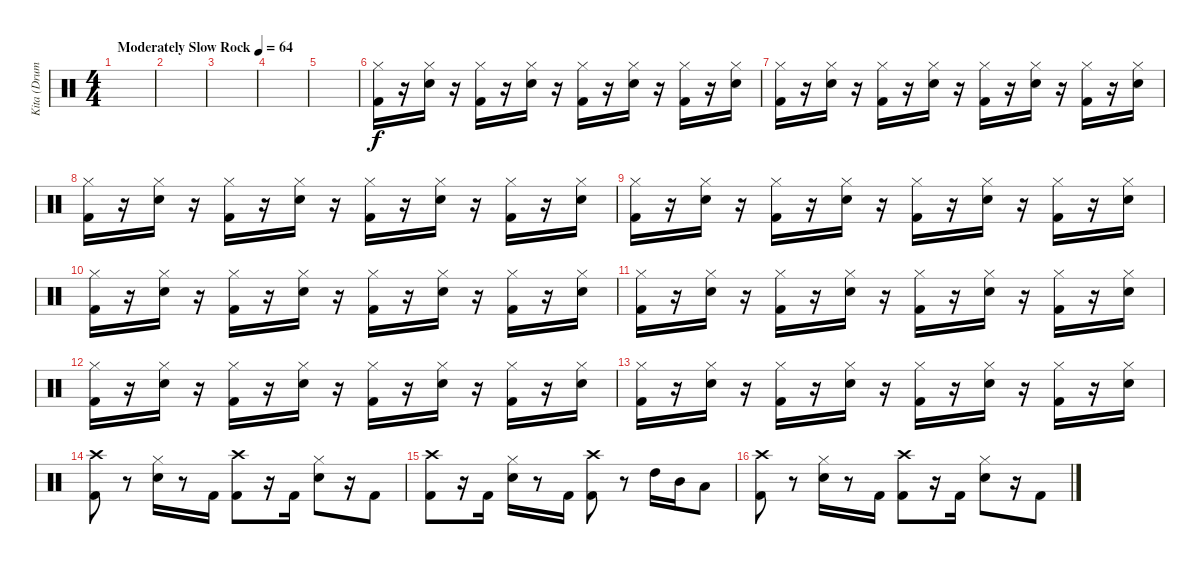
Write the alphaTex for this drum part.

\track ("Kita (Drums)" "Kita (Drum") {instrument percussion}
\staff {score}
\articulation defaults
\ts (4 4)
\tempo (64 "Moderately Slow Rock")
\clef neutral
\ks c
|
|
|
|
|
("Kick (hit) 2" "Hi-Hat (closed)").16 r.16 ("Electric Snare (hit)" "Hi-Hat (closed)").16 r.16 ("Kick (hit) 2" "Hi-Hat (closed)").16 r.16 ("Electric Snare (hit)" "Hi-Hat (closed)").16 r.16 ("Kick (hit) 2" "Hi-Hat (closed)").16 r.16 ("Electric Snare (hit)" "Hi-Hat (closed)").16 r.16 ("Kick (hit) 2" "Hi-Hat (closed)").16 r.16 ("Electric Snare (hit)" "Hi-Hat (closed)").16 |
("Kick (hit) 2" "Hi-Hat (closed)").16 r.16 ("Electric Snare (hit)" "Hi-Hat (closed)").16 r.16 ("Kick (hit) 2" "Hi-Hat (closed)").16 r.16 ("Electric Snare (hit)" "Hi-Hat (closed)").16 r.16 ("Kick (hit) 2" "Hi-Hat (closed)").16 r.16 ("Electric Snare (hit)" "Hi-Hat (closed)").16 r.16 ("Kick (hit) 2" "Hi-Hat (closed)").16 r.16 ("Electric Snare (hit)" "Hi-Hat (closed)").16 |
("Kick (hit) 2" "Hi-Hat (closed)").16 r.16 ("Electric Snare (hit)" "Hi-Hat (closed)").16 r.16 ("Kick (hit) 2" "Hi-Hat (closed)").16 r.16 ("Electric Snare (hit)" "Hi-Hat (closed)").16 r.16 ("Kick (hit) 2" "Hi-Hat (closed)").16 r.16 ("Electric Snare (hit)" "Hi-Hat (closed)").16 r.16 ("Kick (hit) 2" "Hi-Hat (closed)").16 r.16 ("Electric Snare (hit)" "Hi-Hat (closed)").16 |
("Kick (hit) 2" "Hi-Hat (closed)").16 r.16 ("Electric Snare (hit)" "Hi-Hat (closed)").16 r.16 ("Kick (hit) 2" "Hi-Hat (closed)").16 r.16 ("Electric Snare (hit)" "Hi-Hat (closed)").16 r.16 ("Kick (hit) 2" "Hi-Hat (closed)").16 r.16 ("Electric Snare (hit)" "Hi-Hat (closed)").16 r.16 ("Kick (hit) 2" "Hi-Hat (closed)").16 r.16 ("Electric Snare (hit)" "Hi-Hat (closed)").16 |
("Kick (hit) 2" "Hi-Hat (closed)").16 r.16 ("Electric Snare (hit)" "Hi-Hat (closed)").16 r.16 ("Kick (hit) 2" "Hi-Hat (closed)").16 r.16 ("Electric Snare (hit)" "Hi-Hat (closed)").16 r.16 ("Kick (hit) 2" "Hi-Hat (closed)").16 r.16 ("Electric Snare (hit)" "Hi-Hat (closed)").16 r.16 ("Kick (hit) 2" "Hi-Hat (closed)").16 r.16 ("Electric Snare (hit)" "Hi-Hat (closed)").16 |
("Kick (hit) 2" "Hi-Hat (closed)").16 r.16 ("Electric Snare (hit)" "Hi-Hat (closed)").16 r.16 ("Kick (hit) 2" "Hi-Hat (closed)").16 r.16 ("Electric Snare (hit)" "Hi-Hat (closed)").16 r.16 ("Kick (hit) 2" "Hi-Hat (closed)").16 r.16 ("Electric Snare (hit)" "Hi-Hat (closed)").16 r.16 ("Kick (hit) 2" "Hi-Hat (closed)").16 r.16 ("Electric Snare (hit)" "Hi-Hat (closed)").16 |
("Kick (hit) 2" "Hi-Hat (closed)").16 r.16 ("Electric Snare (hit)" "Hi-Hat (closed)").16 r.16 ("Kick (hit) 2" "Hi-Hat (closed)").16 r.16 ("Electric Snare (hit)" "Hi-Hat (closed)").16 r.16 ("Kick (hit) 2" "Hi-Hat (closed)").16 r.16 ("Electric Snare (hit)" "Hi-Hat (closed)").16 r.16 ("Kick (hit) 2" "Hi-Hat (closed)").16 r.16 ("Electric Snare (hit)" "Hi-Hat (closed)").16 |
("Kick (hit) 2" "Hi-Hat (closed)").16 r.16 ("Electric Snare (hit)" "Hi-Hat (closed)").16 r.16 ("Kick (hit) 2" "Hi-Hat (closed)").16 r.16 ("Electric Snare (hit)" "Hi-Hat (closed)").16 r.16 ("Kick (hit) 2" "Hi-Hat (closed)").16 r.16 ("Electric Snare (hit)" "Hi-Hat (closed)").16 r.16 ("Kick (hit) 2" "Hi-Hat (closed)").16 r.16 ("Electric Snare (hit)" "Hi-Hat (closed)").16 |
("Kick (hit) 2" "Crash high (hit)").8 r.8 ("Electric Snare (hit)" "Hi-Hat (closed)").16 r.8 "Kick (hit) 2".16 ("Kick (hit) 2" "Crash high (hit)").8 r.16 "Kick (hit) 2".16 ("Electric Snare (hit)" "Hi-Hat (closed)").8 r.16 "Kick (hit) 2".8 |
("Kick (hit) 2" "Crash high (hit)").8 r.16 "Kick (hit) 2".16 ("Electric Snare (hit)" "Hi-Hat (closed)").16 r.8 "Kick (hit) 2".16 ("Kick (hit) 2" "Crash high (hit)").8 r.8 "High Tom (hit)".16 "Mid Tom (hit)".16 "Low Tom (hit)".8 |
("Kick (hit) 2" "Crash high (hit)").8 r.8 ("Electric Snare (hit)" "Hi-Hat (closed)").16 r.8 "Kick (hit) 2".16 ("Kick (hit) 2" "Crash high (hit)").8 r.16 "Kick (hit) 2".16 ("Electric Snare (hit)" "Hi-Hat (closed)").8 r.16 "Kick (hit) 2".8
